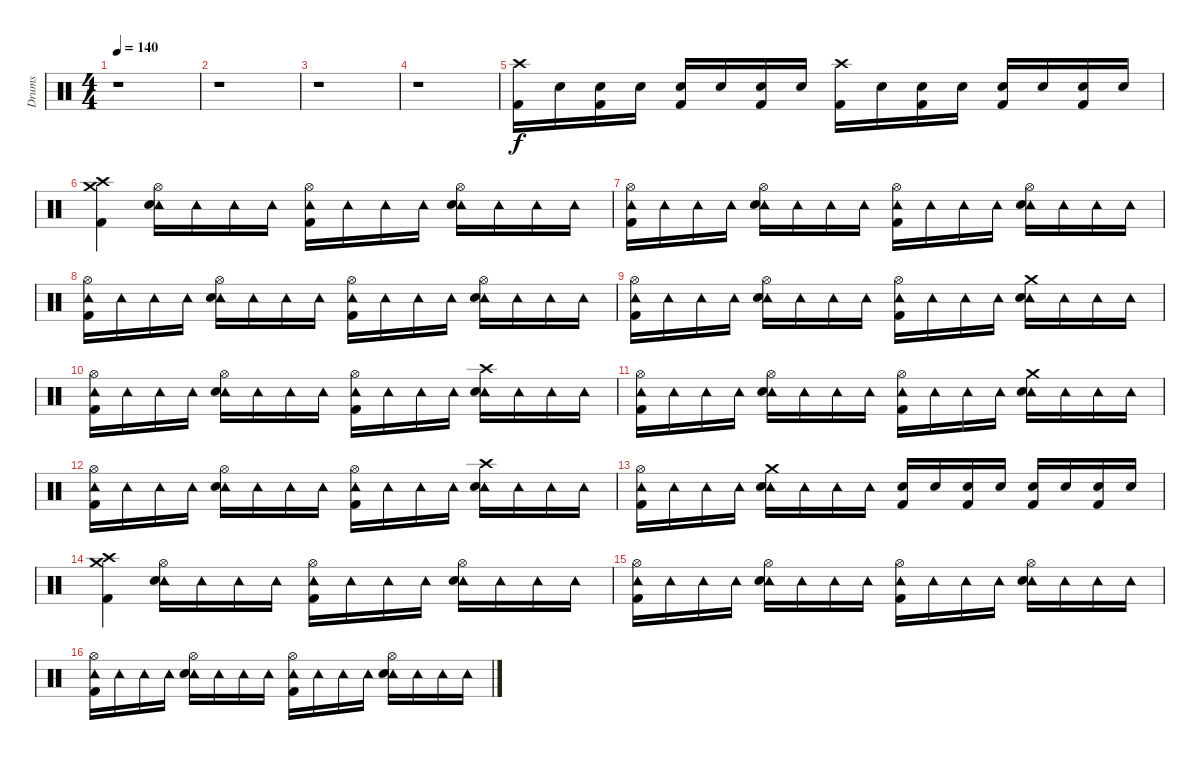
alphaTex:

\track ("Drums" "Drums") {instrument percussion}
\staff {score}
\articulation defaults
\ts (4 4)
\tempo 140
\clef neutral
\ks c
r.1{dy f} |
r.1 |
r.1 |
r.1 |
("Crash high (hit)" "Kick (hit) 2").16 "Snare (hit) 2".16 ("Kick (hit) 2" "Snare (hit) 2").16 "Snare (hit) 2".16 ("Kick (hit) 2" "Snare (hit) 2").16 "Snare (hit) 2".16 ("Kick (hit) 2" "Snare (hit) 2").16 "Snare (hit) 2".16 ("Crash high (hit)" "Kick (hit) 2").16 "Snare (hit) 2".16 ("Kick (hit) 2" "Snare (hit) 2").16 "Snare (hit) 2".16 ("Kick (hit) 2" "Snare (hit) 2").16 "Snare (hit) 2".16 ("Kick (hit) 2" "Snare (hit) 2").16 "Snare (hit) 2".16 |
("Crash medium (hit)" "Crash high (hit)" "Kick (hit) 2").4 ("Tambourine (hit)" "Hi-Hat (open)" "Snare (hit) 2").16 "Tambourine (hit)".16 "Tambourine (hit)".16 "Tambourine (hit)".16 ("Tambourine (hit)" "Hi-Hat (open)" "Kick (hit) 2").16 "Tambourine (hit)".16 "Tambourine (hit)".16 "Tambourine (hit)".16 ("Tambourine (hit)" "Hi-Hat (open)" "Snare (hit) 2").16 "Tambourine (hit)".16 "Tambourine (hit)".16 "Tambourine (hit)".16 |
("Tambourine (hit)" "Hi-Hat (open)" "Kick (hit) 2").16 "Tambourine (hit)".16 "Tambourine (hit)".16 "Tambourine (hit)".16 ("Tambourine (hit)" "Hi-Hat (open)" "Snare (hit) 2").16 "Tambourine (hit)".16 "Tambourine (hit)".16 "Tambourine (hit)".16 ("Tambourine (hit)" "Hi-Hat (open)" "Kick (hit) 2").16 "Tambourine (hit)".16 "Tambourine (hit)".16 "Tambourine (hit)".16 ("Tambourine (hit)" "Hi-Hat (open)" "Snare (hit) 2").16 "Tambourine (hit)".16 "Tambourine (hit)".16 "Tambourine (hit)".16 |
("Tambourine (hit)" "Hi-Hat (open)" "Kick (hit) 2").16 "Tambourine (hit)".16 "Tambourine (hit)".16 "Tambourine (hit)".16 ("Tambourine (hit)" "Hi-Hat (open)" "Snare (hit) 2").16 "Tambourine (hit)".16 "Tambourine (hit)".16 "Tambourine (hit)".16 ("Tambourine (hit)" "Hi-Hat (open)" "Kick (hit) 2").16 "Tambourine (hit)".16 "Tambourine (hit)".16 "Tambourine (hit)".16 ("Tambourine (hit)" "Hi-Hat (open)" "Snare (hit) 2").16 "Tambourine (hit)".16 "Tambourine (hit)".16 "Tambourine (hit)".16 |
("Tambourine (hit)" "Hi-Hat (open)" "Kick (hit) 2").16 "Tambourine (hit)".16 "Tambourine (hit)".16 "Tambourine (hit)".16 ("Tambourine (hit)" "Hi-Hat (open)" "Snare (hit) 2").16 "Tambourine (hit)".16 "Tambourine (hit)".16 "Tambourine (hit)".16 ("Tambourine (hit)" "Hi-Hat (open)" "Kick (hit) 2").16 "Tambourine (hit)".16 "Tambourine (hit)".16 "Tambourine (hit)".16 ("Tambourine (hit)" "Crash medium (hit)" "Snare (hit) 2").16 "Tambourine (hit)".16 "Tambourine (hit)".16 "Tambourine (hit)".16 |
("Tambourine (hit)" "Hi-Hat (open)" "Kick (hit) 2").16 "Tambourine (hit)".16 "Tambourine (hit)".16 "Tambourine (hit)".16 ("Tambourine (hit)" "Hi-Hat (open)" "Snare (hit) 2").16 "Tambourine (hit)".16 "Tambourine (hit)".16 "Tambourine (hit)".16 ("Tambourine (hit)" "Hi-Hat (open)" "Kick (hit) 2").16 "Tambourine (hit)".16 "Tambourine (hit)".16 "Tambourine (hit)".16 ("Tambourine (hit)" "Crash high (hit)" "Snare (hit) 2").16 "Tambourine (hit)".16 "Tambourine (hit)".16 "Tambourine (hit)".16 |
("Tambourine (hit)" "Hi-Hat (open)" "Kick (hit) 2").16 "Tambourine (hit)".16 "Tambourine (hit)".16 "Tambourine (hit)".16 ("Tambourine (hit)" "Hi-Hat (open)" "Snare (hit) 2").16 "Tambourine (hit)".16 "Tambourine (hit)".16 "Tambourine (hit)".16 ("Tambourine (hit)" "Hi-Hat (open)" "Kick (hit) 2").16 "Tambourine (hit)".16 "Tambourine (hit)".16 "Tambourine (hit)".16 ("Tambourine (hit)" "Crash medium (hit)" "Snare (hit) 2").16 "Tambourine (hit)".16 "Tambourine (hit)".16 "Tambourine (hit)".16 |
("Tambourine (hit)" "Hi-Hat (open)" "Kick (hit) 2").16 "Tambourine (hit)".16 "Tambourine (hit)".16 "Tambourine (hit)".16 ("Tambourine (hit)" "Hi-Hat (open)" "Snare (hit) 2").16 "Tambourine (hit)".16 "Tambourine (hit)".16 "Tambourine (hit)".16 ("Tambourine (hit)" "Hi-Hat (open)" "Kick (hit) 2").16 "Tambourine (hit)".16 "Tambourine (hit)".16 "Tambourine (hit)".16 ("Tambourine (hit)" "Crash high (hit)" "Snare (hit) 2").16 "Tambourine (hit)".16 "Tambourine (hit)".16 "Tambourine (hit)".16 |
("Tambourine (hit)" "Hi-Hat (open)" "Kick (hit) 2").16 "Tambourine (hit)".16 "Tambourine (hit)".16 "Tambourine (hit)".16 ("Tambourine (hit)" "Crash medium (hit)" "Snare (hit) 2").16 "Tambourine (hit)".16 "Tambourine (hit)".16 "Tambourine (hit)".16 ("Snare (hit) 2" "Kick (hit) 2").16 "Snare (hit) 2".16 ("Snare (hit) 2" "Kick (hit) 2").16 "Snare (hit) 2".16 ("Snare (hit) 2" "Kick (hit) 2").16 "Snare (hit) 2".16 ("Snare (hit) 2" "Kick (hit) 2").16 "Snare (hit) 2".16 |
("Crash medium (hit)" "Crash high (hit)" "Kick (hit) 2").4 ("Tambourine (hit)" "Hi-Hat (open)" "Snare (hit) 2").16 "Tambourine (hit)".16 "Tambourine (hit)".16 "Tambourine (hit)".16 ("Tambourine (hit)" "Hi-Hat (open)" "Kick (hit) 2").16 "Tambourine (hit)".16 "Tambourine (hit)".16 "Tambourine (hit)".16 ("Tambourine (hit)" "Hi-Hat (open)" "Snare (hit) 2").16 "Tambourine (hit)".16 "Tambourine (hit)".16 "Tambourine (hit)".16 |
("Tambourine (hit)" "Hi-Hat (open)" "Kick (hit) 2").16 "Tambourine (hit)".16 "Tambourine (hit)".16 "Tambourine (hit)".16 ("Tambourine (hit)" "Hi-Hat (open)" "Snare (hit) 2").16 "Tambourine (hit)".16 "Tambourine (hit)".16 "Tambourine (hit)".16 ("Tambourine (hit)" "Hi-Hat (open)" "Kick (hit) 2").16 "Tambourine (hit)".16 "Tambourine (hit)".16 "Tambourine (hit)".16 ("Tambourine (hit)" "Hi-Hat (open)" "Snare (hit) 2").16 "Tambourine (hit)".16 "Tambourine (hit)".16 "Tambourine (hit)".16 |
("Tambourine (hit)" "Hi-Hat (open)" "Kick (hit) 2").16 "Tambourine (hit)".16 "Tambourine (hit)".16 "Tambourine (hit)".16 ("Tambourine (hit)" "Hi-Hat (open)" "Snare (hit) 2").16 "Tambourine (hit)".16 "Tambourine (hit)".16 "Tambourine (hit)".16 ("Tambourine (hit)" "Hi-Hat (open)" "Kick (hit) 2").16 "Tambourine (hit)".16 "Tambourine (hit)".16 "Tambourine (hit)".16 ("Tambourine (hit)" "Hi-Hat (open)" "Snare (hit) 2").16 "Tambourine (hit)".16 "Tambourine (hit)".16 "Tambourine (hit)".16
